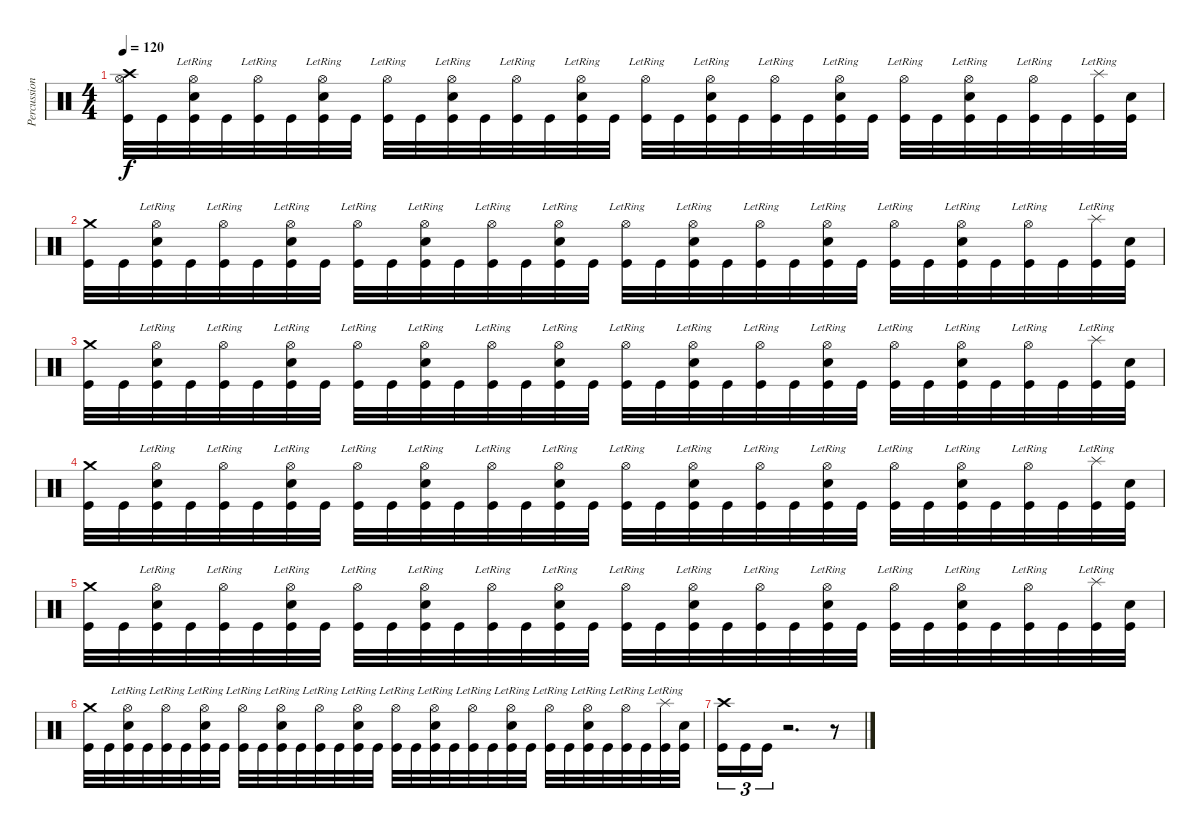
\track ("Percussion" "Percussion") {instrument percussion}
\staff {score}
\articulation defaults
\ts (4 4)
\tempo 120
\clef neutral
\ks c
("Crash high (hit)" "Hi-Hat (open)" "Kick (hit)").32{dy f} "Kick (hit)".32 ("Hi-Hat (open)"{lr} "Snare (hit) 2" "Kick (hit)").32 "Kick (hit)".32 ("Hi-Hat (open)"{lr} "Kick (hit)").32 "Kick (hit)".32 ("Hi-Hat (open)"{lr} "Snare (hit) 2" "Kick (hit)").32 "Kick (hit)".32 ("Hi-Hat (open)"{lr} "Kick (hit)").32 "Kick (hit)".32 ("Hi-Hat (open)"{lr} "Snare (hit) 2" "Kick (hit)").32 "Kick (hit)".32 ("Hi-Hat (open)"{lr} "Kick (hit)").32 "Kick (hit)".32 ("Hi-Hat (open)"{lr} "Snare (hit) 2" "Kick (hit)").32 "Kick (hit)".32 ("Hi-Hat (open)"{lr} "Kick (hit)").32 "Kick (hit)".32 ("Hi-Hat (open)"{lr} "Snare (hit) 2" "Kick (hit)").32 "Kick (hit)".32 ("Hi-Hat (open)"{lr} "Kick (hit)").32 "Kick (hit)".32 ("Hi-Hat (open)"{lr} "Snare (hit) 2" "Kick (hit)").32 "Kick (hit)".32 ("Hi-Hat (open)"{lr} "Kick (hit)").32 "Kick (hit)".32 ("Hi-Hat (open)"{lr} "Snare (hit) 2" "Kick (hit)").32 "Kick (hit)".32 ("Hi-Hat (open)"{lr} "Kick (hit)").32 "Kick (hit)".32 ("Splash (hit)"{lr} "Kick (hit)").32 ("Snare (hit) 2" "Kick (hit)").32 |
("Crash medium (hit)" "Kick (hit)").32 "Kick (hit)".32 ("Hi-Hat (open)"{lr} "Snare (hit) 2" "Kick (hit)").32 "Kick (hit)".32 ("Hi-Hat (open)"{lr} "Kick (hit)").32 "Kick (hit)".32 ("Hi-Hat (open)"{lr} "Snare (hit) 2" "Kick (hit)").32 "Kick (hit)".32 ("Hi-Hat (open)"{lr} "Kick (hit)").32 "Kick (hit)".32 ("Hi-Hat (open)"{lr} "Snare (hit) 2" "Kick (hit)").32 "Kick (hit)".32 ("Hi-Hat (open)"{lr} "Kick (hit)").32 "Kick (hit)".32 ("Hi-Hat (open)"{lr} "Snare (hit) 2" "Kick (hit)").32 "Kick (hit)".32 ("Hi-Hat (open)"{lr} "Kick (hit)").32 "Kick (hit)".32 ("Hi-Hat (open)"{lr} "Snare (hit) 2" "Kick (hit)").32 "Kick (hit)".32 ("Hi-Hat (open)"{lr} "Kick (hit)").32 "Kick (hit)".32 ("Hi-Hat (open)"{lr} "Snare (hit) 2" "Kick (hit)").32 "Kick (hit)".32 ("Hi-Hat (open)"{lr} "Kick (hit)").32 "Kick (hit)".32 ("Hi-Hat (open)"{lr} "Snare (hit) 2" "Kick (hit)").32 "Kick (hit)".32 ("Hi-Hat (open)"{lr} "Kick (hit)").32 "Kick (hit)".32 ("Splash (hit)"{lr} "Kick (hit)").32 ("Snare (hit) 2" "Kick (hit)").32 |
("Crash medium (hit)" "Kick (hit)").32 "Kick (hit)".32 ("Hi-Hat (open)"{lr} "Snare (hit) 2" "Kick (hit)").32 "Kick (hit)".32 ("Hi-Hat (open)"{lr} "Kick (hit)").32 "Kick (hit)".32 ("Hi-Hat (open)"{lr} "Snare (hit) 2" "Kick (hit)").32 "Kick (hit)".32 ("Hi-Hat (open)"{lr} "Kick (hit)").32 "Kick (hit)".32 ("Hi-Hat (open)"{lr} "Snare (hit) 2" "Kick (hit)").32 "Kick (hit)".32 ("Hi-Hat (open)"{lr} "Kick (hit)").32 "Kick (hit)".32 ("Hi-Hat (open)"{lr} "Snare (hit) 2" "Kick (hit)").32 "Kick (hit)".32 ("Hi-Hat (open)"{lr} "Kick (hit)").32 "Kick (hit)".32 ("Hi-Hat (open)"{lr} "Snare (hit) 2" "Kick (hit)").32 "Kick (hit)".32 ("Hi-Hat (open)"{lr} "Kick (hit)").32 "Kick (hit)".32 ("Hi-Hat (open)"{lr} "Snare (hit) 2" "Kick (hit)").32 "Kick (hit)".32 ("Hi-Hat (open)"{lr} "Kick (hit)").32 "Kick (hit)".32 ("Hi-Hat (open)"{lr} "Snare (hit) 2" "Kick (hit)").32 "Kick (hit)".32 ("Hi-Hat (open)"{lr} "Kick (hit)").32 "Kick (hit)".32 ("Splash (hit)"{lr} "Kick (hit)").32 ("Snare (hit) 2" "Kick (hit)").32 |
("Crash medium (hit)" "Kick (hit)").32 "Kick (hit)".32 ("Hi-Hat (open)"{lr} "Snare (hit) 2" "Kick (hit)").32 "Kick (hit)".32 ("Hi-Hat (open)"{lr} "Kick (hit)").32 "Kick (hit)".32 ("Hi-Hat (open)"{lr} "Snare (hit) 2" "Kick (hit)").32 "Kick (hit)".32 ("Hi-Hat (open)"{lr} "Kick (hit)").32 "Kick (hit)".32 ("Hi-Hat (open)"{lr} "Snare (hit) 2" "Kick (hit)").32 "Kick (hit)".32 ("Hi-Hat (open)"{lr} "Kick (hit)").32 "Kick (hit)".32 ("Hi-Hat (open)"{lr} "Snare (hit) 2" "Kick (hit)").32 "Kick (hit)".32 ("Hi-Hat (open)"{lr} "Kick (hit)").32 "Kick (hit)".32 ("Hi-Hat (open)"{lr} "Snare (hit) 2" "Kick (hit)").32 "Kick (hit)".32 ("Hi-Hat (open)"{lr} "Kick (hit)").32 "Kick (hit)".32 ("Hi-Hat (open)"{lr} "Snare (hit) 2" "Kick (hit)").32 "Kick (hit)".32 ("Hi-Hat (open)"{lr} "Kick (hit)").32 "Kick (hit)".32 ("Hi-Hat (open)"{lr} "Snare (hit) 2" "Kick (hit)").32 "Kick (hit)".32 ("Hi-Hat (open)"{lr} "Kick (hit)").32 "Kick (hit)".32 ("Splash (hit)"{lr} "Kick (hit)").32 ("Snare (hit) 2" "Kick (hit)").32 |
("Crash medium (hit)" "Kick (hit)").32 "Kick (hit)".32 ("Hi-Hat (open)"{lr} "Snare (hit) 2" "Kick (hit)").32 "Kick (hit)".32 ("Hi-Hat (open)"{lr} "Kick (hit)").32 "Kick (hit)".32 ("Hi-Hat (open)"{lr} "Snare (hit) 2" "Kick (hit)").32 "Kick (hit)".32 ("Hi-Hat (open)"{lr} "Kick (hit)").32 "Kick (hit)".32 ("Hi-Hat (open)"{lr} "Snare (hit) 2" "Kick (hit)").32 "Kick (hit)".32 ("Hi-Hat (open)"{lr} "Kick (hit)").32 "Kick (hit)".32 ("Hi-Hat (open)"{lr} "Snare (hit) 2" "Kick (hit)").32 "Kick (hit)".32 ("Hi-Hat (open)"{lr} "Kick (hit)").32 "Kick (hit)".32 ("Hi-Hat (open)"{lr} "Snare (hit) 2" "Kick (hit)").32 "Kick (hit)".32 ("Hi-Hat (open)"{lr} "Kick (hit)").32 "Kick (hit)".32 ("Hi-Hat (open)"{lr} "Snare (hit) 2" "Kick (hit)").32 "Kick (hit)".32 ("Hi-Hat (open)"{lr} "Kick (hit)").32 "Kick (hit)".32 ("Hi-Hat (open)"{lr} "Snare (hit) 2" "Kick (hit)").32 "Kick (hit)".32 ("Hi-Hat (open)"{lr} "Kick (hit)").32 "Kick (hit)".32 ("Splash (hit)"{lr} "Kick (hit)").32 ("Snare (hit) 2" "Kick (hit)").32 |
("Crash medium (hit)" "Kick (hit)").32 "Kick (hit)".32 ("Hi-Hat (open)"{lr} "Snare (hit) 2" "Kick (hit)").32 "Kick (hit)".32 ("Hi-Hat (open)"{lr} "Kick (hit)").32 "Kick (hit)".32 ("Hi-Hat (open)"{lr} "Snare (hit) 2" "Kick (hit)").32 "Kick (hit)".32 ("Hi-Hat (open)"{lr} "Kick (hit)").32 "Kick (hit)".32 ("Hi-Hat (open)"{lr} "Snare (hit) 2" "Kick (hit)").32 "Kick (hit)".32 ("Hi-Hat (open)"{lr} "Kick (hit)").32 "Kick (hit)".32 ("Hi-Hat (open)"{lr} "Snare (hit) 2" "Kick (hit)").32 "Kick (hit)".32 ("Hi-Hat (open)"{lr} "Kick (hit)").32 "Kick (hit)".32 ("Hi-Hat (open)"{lr} "Snare (hit) 2" "Kick (hit)").32 "Kick (hit)".32 ("Hi-Hat (open)"{lr} "Kick (hit)").32 "Kick (hit)".32 ("Hi-Hat (open)"{lr} "Snare (hit) 2" "Kick (hit)").32 "Kick (hit)".32 ("Hi-Hat (open)"{lr} "Kick (hit)").32 "Kick (hit)".32 ("Hi-Hat (open)"{lr} "Snare (hit) 2" "Kick (hit)").32 "Kick (hit)".32 ("Hi-Hat (open)"{lr} "Kick (hit)").32 "Kick (hit)".32 ("Splash (hit)"{lr} "Kick (hit)").32 ("Snare (hit) 2" "Kick (hit)").32 |
("Crash high (hit)" "Kick (hit)").16{tu (3 2)} "Kick (hit)".16{tu (3 2)} "Kick (hit)".16{tu (3 2)} r.2{d} r.8
